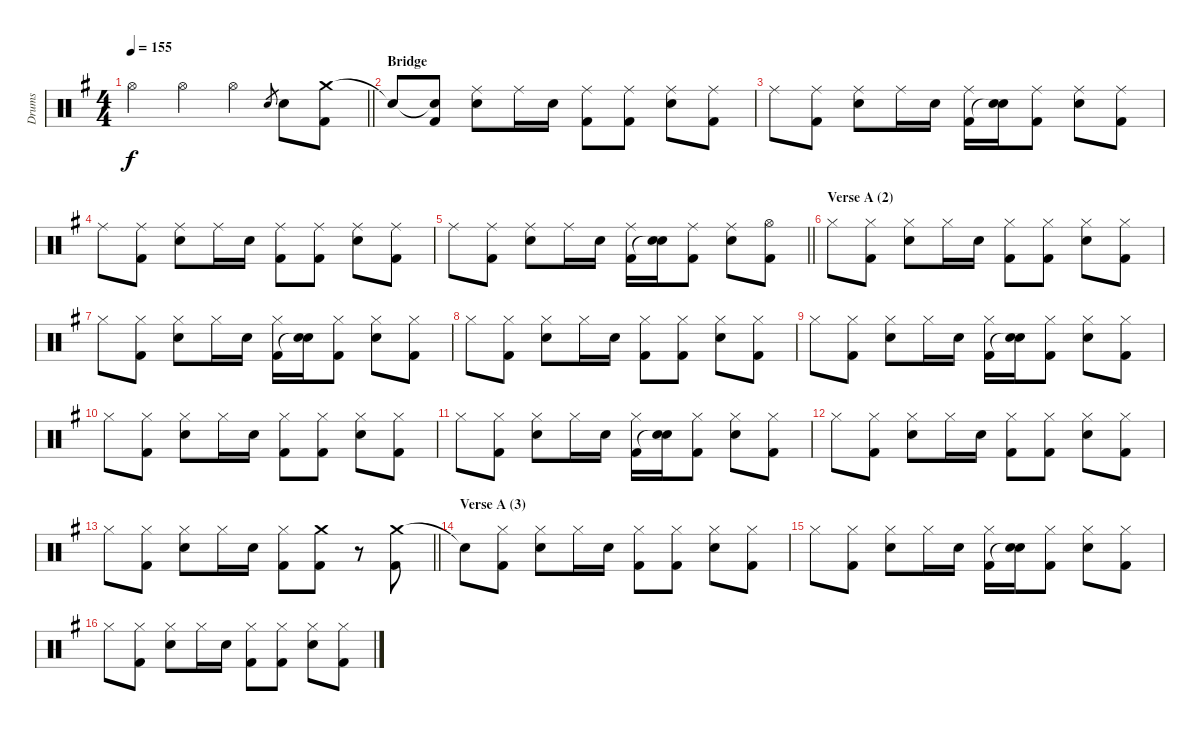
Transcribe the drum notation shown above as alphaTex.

\track ("Drums" "Drums") {instrument percussion}
\staff {score}
\articulation defaults
\ts (4 4)
\tempo 155
\clef neutral
\barLineRight lightlight
\ks eminor "Hi-Hat (open)".4{dy f} "Hi-Hat (open)".4 "Hi-Hat (open)".4 "Electric Snare (hit)".8{gr} "Electric Snare (hit)".8
("Crash medium (hit)" "Kick (hit) 2").8 |
\section ("" "Bridge")
"Snare (hit)"{t}.8 ("Snare (hit)"{t} "Kick (hit) 2").8 ("Ride (middle)" "Electric Snare (hit)").8 "Ride (middle)".16 "Electric Snare (hit)".16 ("Ride (middle)" "Kick (hit) 2").8 ("Ride (middle)" "Kick (hit) 2").8 ("Ride (middle)" "Electric Snare (hit)").8 ("Ride (middle)" "Kick (hit) 2").8 |
"Ride (middle)".8 ("Ride (middle)" "Kick (hit) 2").8 ("Ride (middle)" "Electric Snare (hit)").8 "Ride (middle)".16 "Electric Snare (hit)".16 ("Ride (middle)" "Kick (hit) 2").16 ("Electric Snare (hit)" "Snare (hit)"{t}).16 ("Ride (middle)" "Kick (hit) 2").8 ("Ride (middle)" "Electric Snare (hit)").8 ("Ride (middle)" "Kick (hit) 2").8 |
"Ride (middle)".8 ("Ride (middle)" "Kick (hit) 2").8 ("Ride (middle)" "Electric Snare (hit)").8 "Ride (middle)".16 "Electric Snare (hit)".16 ("Ride (middle)" "Kick (hit) 2").8 ("Ride (middle)" "Kick (hit) 2").8 ("Ride (middle)" "Electric Snare (hit)").8 ("Ride (middle)" "Kick (hit) 2").8 |
\barLineRight lightlight "Ride (middle)".8
("Ride (middle)" "Kick (hit) 2").8 ("Ride (middle)" "Electric Snare (hit)").8 "Ride (middle)".16 "Electric Snare (hit)".16 ("Ride (middle)" "Kick (hit) 2").16 ("Electric Snare (hit)" "Snare (hit)"{t}).16 ("Ride (middle)" "Kick (hit) 2").8 ("Ride (middle)" "Electric Snare (hit)").8 ("Hi-Hat (open)" "Kick (hit) 2").8 |
\section ("" "Verse A (2)")
"Hi-Hat (closed)".8 ("Hi-Hat (closed)" "Kick (hit) 2").8 ("Hi-Hat (closed)" "Electric Snare (hit)").8 "Hi-Hat (closed)".16 "Electric Snare (hit)".16 ("Hi-Hat (closed)" "Kick (hit) 2").8 ("Hi-Hat (closed)" "Kick (hit) 2").8 ("Hi-Hat (closed)" "Electric Snare (hit)").8 ("Hi-Hat (closed)" "Kick (hit) 2").8 |
"Hi-Hat (closed)".8 ("Hi-Hat (closed)" "Kick (hit) 2").8 ("Hi-Hat (closed)" "Electric Snare (hit)").8 "Hi-Hat (closed)".16 "Electric Snare (hit)".16 ("Hi-Hat (closed)" "Kick (hit) 2").16 ("Electric Snare (hit)" "Snare (hit)"{t}).16 ("Hi-Hat (closed)" "Kick (hit) 2").8 ("Hi-Hat (closed)" "Electric Snare (hit)").8 ("Hi-Hat (closed)" "Kick (hit) 2").8 |
"Hi-Hat (closed)".8 ("Hi-Hat (closed)" "Kick (hit) 2").8 ("Hi-Hat (closed)" "Electric Snare (hit)").8 "Hi-Hat (closed)".16 "Electric Snare (hit)".16 ("Hi-Hat (closed)" "Kick (hit) 2").8 ("Hi-Hat (closed)" "Kick (hit) 2").8 ("Hi-Hat (closed)" "Electric Snare (hit)").8 ("Hi-Hat (closed)" "Kick (hit) 2").8 |
"Hi-Hat (closed)".8 ("Hi-Hat (closed)" "Kick (hit) 2").8 ("Hi-Hat (closed)" "Electric Snare (hit)").8 "Hi-Hat (closed)".16 "Electric Snare (hit)".16 ("Hi-Hat (closed)" "Kick (hit) 2").16 ("Electric Snare (hit)" "Snare (hit)"{t}).16 ("Hi-Hat (closed)" "Kick (hit) 2").8 ("Hi-Hat (closed)" "Electric Snare (hit)").8 ("Hi-Hat (closed)" "Kick (hit) 2").8 |
"Hi-Hat (closed)".8 ("Hi-Hat (closed)" "Kick (hit) 2").8 ("Hi-Hat (closed)" "Electric Snare (hit)").8 "Hi-Hat (closed)".16 "Electric Snare (hit)".16 ("Hi-Hat (closed)" "Kick (hit) 2").8 ("Hi-Hat (closed)" "Kick (hit) 2").8 ("Hi-Hat (closed)" "Electric Snare (hit)").8 ("Hi-Hat (closed)" "Kick (hit) 2").8 |
"Hi-Hat (closed)".8 ("Hi-Hat (closed)" "Kick (hit) 2").8 ("Hi-Hat (closed)" "Electric Snare (hit)").8 "Hi-Hat (closed)".16 "Electric Snare (hit)".16 ("Hi-Hat (closed)" "Kick (hit) 2").16 ("Electric Snare (hit)" "Snare (hit)"{t}).16 ("Hi-Hat (closed)" "Kick (hit) 2").8 ("Hi-Hat (closed)" "Electric Snare (hit)").8 ("Hi-Hat (closed)" "Kick (hit) 2").8 |
"Hi-Hat (closed)".8 ("Hi-Hat (closed)" "Kick (hit) 2").8 ("Hi-Hat (closed)" "Electric Snare (hit)").8 "Hi-Hat (closed)".16 "Electric Snare (hit)".16 ("Hi-Hat (closed)" "Kick (hit) 2").8 ("Hi-Hat (closed)" "Kick (hit) 2").8 ("Hi-Hat (closed)" "Electric Snare (hit)").8 ("Hi-Hat (closed)" "Kick (hit) 2").8 |
\barLineRight lightlight "Hi-Hat (closed)".8
("Hi-Hat (closed)" "Kick (hit) 2").8 ("Hi-Hat (closed)" "Electric Snare (hit)").8 "Hi-Hat (closed)".16 "Electric Snare (hit)".16 ("Hi-Hat (closed)" "Kick (hit) 2").8 ("Crash medium (hit)" "Kick (hit) 2").8 r.8 ("Crash medium (hit)" "Kick (hit) 2").8 |
\section ("" "Verse A (3)")
"Snare (hit)"{t}.8 ("Hi-Hat (closed)" "Kick (hit) 2").8 ("Hi-Hat (closed)" "Electric Snare (hit)").8 "Hi-Hat (closed)".16 "Electric Snare (hit)".16 ("Hi-Hat (closed)" "Kick (hit) 2").8 ("Hi-Hat (closed)" "Kick (hit) 2").8 ("Hi-Hat (closed)" "Electric Snare (hit)").8 ("Hi-Hat (closed)" "Kick (hit) 2").8 |
"Hi-Hat (closed)".8 ("Hi-Hat (closed)" "Kick (hit) 2").8 ("Hi-Hat (closed)" "Electric Snare (hit)").8 "Hi-Hat (closed)".16 "Electric Snare (hit)".16 ("Hi-Hat (closed)" "Kick (hit) 2").16 ("Electric Snare (hit)" "Snare (hit)"{t}).16 ("Hi-Hat (closed)" "Kick (hit) 2").8 ("Hi-Hat (closed)" "Electric Snare (hit)").8 ("Hi-Hat (closed)" "Kick (hit) 2").8 |
"Hi-Hat (closed)".8 ("Hi-Hat (closed)" "Kick (hit) 2").8 ("Hi-Hat (closed)" "Electric Snare (hit)").8 "Hi-Hat (closed)".16 "Electric Snare (hit)".16 ("Hi-Hat (closed)" "Kick (hit) 2").8 ("Hi-Hat (closed)" "Kick (hit) 2").8 ("Hi-Hat (closed)" "Electric Snare (hit)").8 ("Hi-Hat (closed)" "Kick (hit) 2").8
